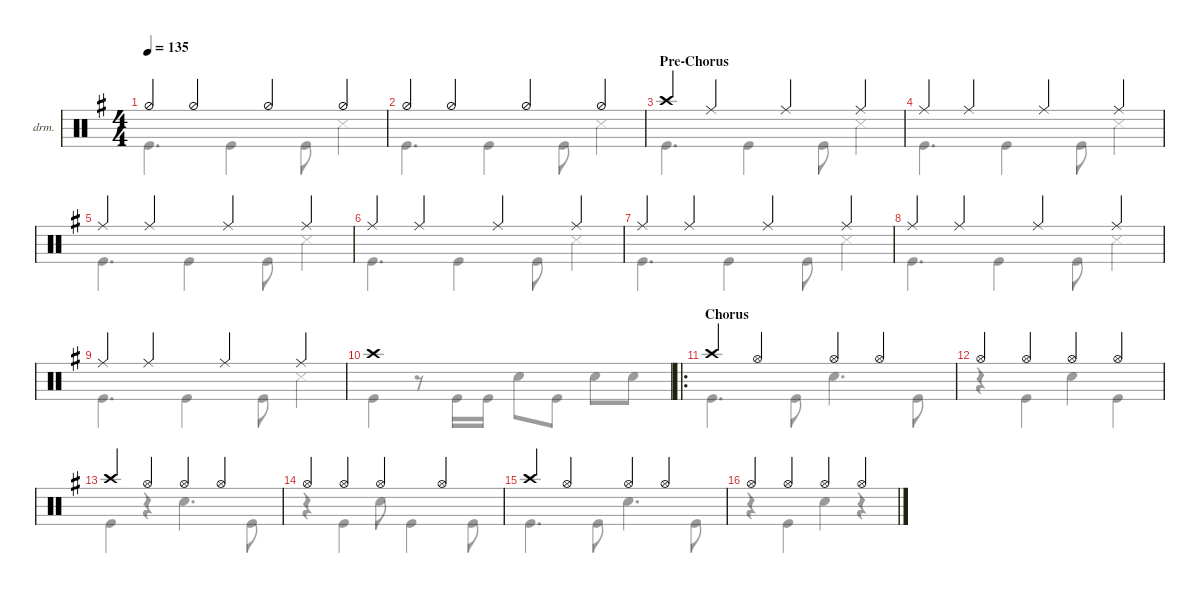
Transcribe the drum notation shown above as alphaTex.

\defaultSystemsLayout 4
\hideDynamics
\bracketExtendMode nobrackets
\firstSystemTrackNameOrientation horizontal
\otherSystemsTrackNameOrientation horizontal
\track ("Drumkit" "drm.") {instrument percussion}
\staff {score}
\articulation defaults
\voice
\ts (4 4)
\tempo 135
\clef neutral
\ks eminor "Hi-Hat (half)".4{dy mp} "Hi-Hat (half)".4{dy p} "Hi-Hat (half)".4 "Hi-Hat (half)".4
|
"Hi-Hat (half)".4{dy mp} "Hi-Hat (half)".4{dy p} "Hi-Hat (half)".4 "Hi-Hat (half)".4 |
\section ("" "Pre-Chorus")
"Crash high (hit)".4{dy mp} "Ride (middle)".4 "Ride (middle)".4 "Ride (middle)".4 |
"Ride (middle)".4 "Ride (middle)".4 "Ride (middle)".4 "Ride (middle)".4 |
"Ride (middle)".4 "Ride (middle)".4 "Ride (middle)".4 "Ride (middle)".4 |
"Ride (middle)".4 "Ride (middle)".4 "Ride (middle)".4 "Ride (middle)".4 |
"Ride (middle)".4 "Ride (middle)".4 "Ride (middle)".4 "Ride (middle)".4 |
"Ride (middle)".4 "Ride (middle)".4 "Ride (middle)".4 "Ride (middle)".4 |
"Ride (middle)".4 "Ride (middle)".4 "Ride (middle)".4 "Ride (middle)".4 |
"Crash high (hit)".1 |
\ro
\section ("" "Chorus")
"Crash high (hit)".4{dy mf} "Hi-Hat (open)".4 "Hi-Hat (open)".4 "Hi-Hat (open)".4 |
"Hi-Hat (open)".4 "Hi-Hat (open)".4 "Hi-Hat (open)".4 "Hi-Hat (open)".4 |
"Crash high (hit)".4 "Hi-Hat (open)".4 "Hi-Hat (open)".4 "Hi-Hat (open)".4 |
"Hi-Hat (open)".4 "Hi-Hat (open)".4 "Hi-Hat (open)".4 "Hi-Hat (open)".4 |
"Crash high (hit)".4 "Hi-Hat (open)".4 "Hi-Hat (open)".4 "Hi-Hat (open)".4 |
"Hi-Hat (open)".4 "Hi-Hat (open)".4 "Hi-Hat (open)".4 "Hi-Hat (open)".4
\voice
\clef neutral
\ottava regular
\simile none
\ks eminor "Kick (hit)".4{d dy mf} "Kick (hit)".4{dy mp} "Kick (hit)".8 "Snare (side stick) 3".4{dy mf}
|
"Kick (hit)".4{d} "Kick (hit)".4{dy mp} "Kick (hit)".8 "Snare (side stick) 3".4{dy mf} |
"Kick (hit)".4{d} "Kick (hit)".4{dy mp} "Kick (hit)".8 "Snare (side stick) 3".4{dy mf} |
"Kick (hit)".4{d} "Kick (hit)".4{dy mp} "Kick (hit)".8 "Snare (side stick) 3".4{dy mf} |
"Kick (hit)".4{d} "Kick (hit)".4{dy mp} "Kick (hit)".8 "Snare (side stick) 3".4{dy mf} |
"Kick (hit)".4{d} "Kick (hit)".4{dy mp} "Kick (hit)".8 "Snare (side stick) 3".4{dy mf} |
"Kick (hit)".4{d} "Kick (hit)".4{dy mp} "Kick (hit)".8 "Snare (side stick) 3".4{dy mf} |
"Kick (hit)".4{d} "Kick (hit)".4{dy mp} "Kick (hit)".8 "Snare (side stick) 3".4{dy mf} |
"Kick (hit)".4{d} "Kick (hit)".4{dy mp} "Kick (hit)".8 "Snare (side stick) 3".4{dy mf} |
"Kick (hit)".4 r.8 "Kick (hit)".16 "Kick (hit)".16 "Snare (hit) 2".8 "Kick (hit)".8 "Snare (hit) 2".8 "Snare (hit) 2".8 |
"Kick (hit)".4{d dy f} "Kick (hit)".8 "Snare (hit) 2".4{d} "Kick (hit)".8{dy mf} |
r.4 "Kick (hit)".4 "Snare (hit) 2".4 "Kick (hit)".4 |
"Kick (hit)".4{dy f} r.4 "Snare (hit) 2".4{d} "Kick (hit)".8{dy mf} |
r.4 "Kick (hit)".4 "Snare (hit) 2".8 "Kick (hit)".4 "Kick (hit)".8 |
"Kick (hit)".4{d} "Kick (hit)".8 "Snare (hit) 2".4{d} "Kick (hit)".8 |
r.4 "Kick (hit)".4 "Snare (hit) 2".4 r.4
